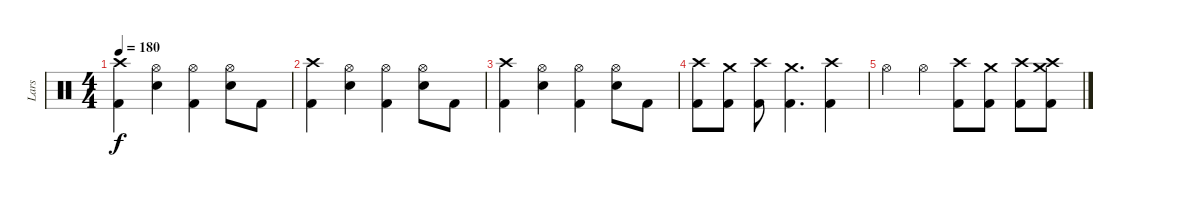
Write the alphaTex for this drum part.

\track ("Lars" "Lars") {instrument percussion}
\staff {score}
\articulation defaults
\ts (4 4)
\tempo 180
\clef neutral
\ks c
("Crash high (hit)" "Kick (hit) 2").4{dy f} ("Hi-Hat (open)" "Electric Snare (hit)").4 ("Hi-Hat (open)" "Kick (hit) 2").4 ("Hi-Hat (open)" "Electric Snare (hit)").8 "Kick (hit) 2".8 |
("Crash high (hit)" "Kick (hit) 2").4 ("Hi-Hat (open)" "Electric Snare (hit)").4 ("Hi-Hat (open)" "Kick (hit) 2").4 ("Hi-Hat (open)" "Electric Snare (hit)").8 "Kick (hit) 2".8 |
("Crash high (hit)" "Kick (hit) 2").4 ("Hi-Hat (open)" "Electric Snare (hit)").4 ("Hi-Hat (open)" "Kick (hit) 2").4 ("Hi-Hat (open)" "Electric Snare (hit)").8 "Kick (hit) 2".8 |
("Crash high (hit)" "Kick (hit) 2").8 ("Crash medium (hit)" "Kick (hit) 2").8 ("Crash high (hit)" "Kick (hit) 2").8 ("Crash medium (hit)" "Kick (hit) 2").4{d} ("Crash high (hit)" "Kick (hit) 2").4 |
"Hi-Hat (open)".4 "Hi-Hat (open)".4 ("Crash high (hit)" "Kick (hit) 2").8 ("Crash medium (hit)" "Kick (hit) 2").8 ("Crash high (hit)" "Kick (hit) 2").8 ("Crash high (hit)" "Crash medium (hit)" "Kick (hit) 2").8
